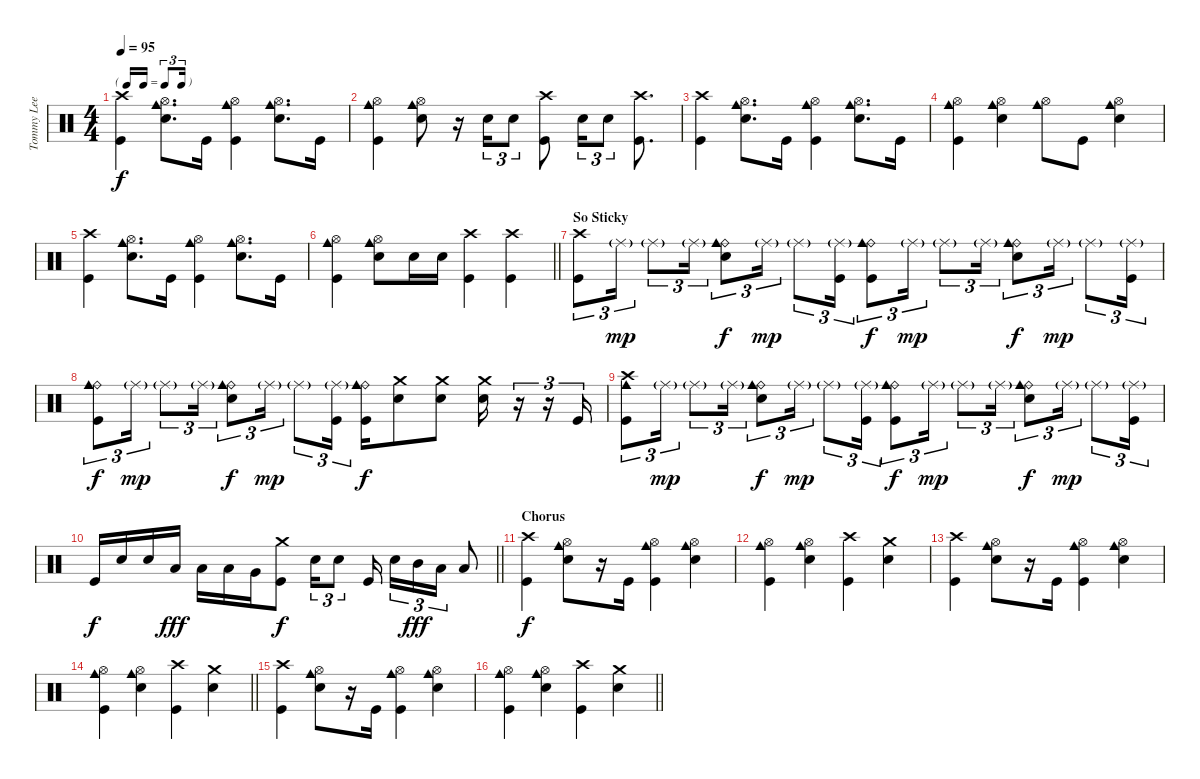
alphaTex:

\track ("Tommy Lee" "Tommy Lee") {instrument percussion}
\staff {score}
\articulation defaults
\ts (4 4)
\tf triplet16th
\tempo 95
\clef neutral
\ks c
("Crash high (hit)" "Kick (hit)").4{dy f} ("Hi-Hat (open)" "Cowbell medium (hit)" "Snare (hit) 2").8{d} "Kick (hit)".16 ("Hi-Hat (open)" "Cowbell medium (hit)" "Kick (hit)").4 ("Hi-Hat (open)" "Cowbell medium (hit)" "Snare (hit) 2").8{d} "Kick (hit)".16 |
("Hi-Hat (open)" "Cowbell medium (hit)" "Kick (hit)").4 ("Hi-Hat (open)" "Cowbell medium (hit)" "Snare (hit) 2").8 r.16 "Snare (hit) 2".16{tu (3 2)} "Snare (hit) 2".8{tu (3 2)} ("Crash high (hit)" "Kick (hit)").8 "Snare (hit) 2".16{tu (3 2)} "Snare (hit) 2".8{tu (3 2)} ("Crash high (hit)" "Kick (hit)").8{d} |
("Crash high (hit)" "Kick (hit)").4 ("Hi-Hat (open)" "Cowbell medium (hit)" "Snare (hit) 2").8{d} "Kick (hit)".16 ("Hi-Hat (open)" "Cowbell medium (hit)" "Kick (hit)").4 ("Hi-Hat (open)" "Cowbell medium (hit)" "Snare (hit) 2").8{d} "Kick (hit)".16 |
("Hi-Hat (open)" "Cowbell medium (hit)" "Kick (hit)").4 ("Hi-Hat (open)" "Cowbell medium (hit)" "Snare (hit) 2").4 ("Hi-Hat (open)" "Cowbell medium (hit)").8 "Kick (hit)".8 ("Hi-Hat (open)" "Cowbell medium (hit)" "Snare (hit) 2").4 |
("Crash high (hit)" "Kick (hit)").4 ("Hi-Hat (open)" "Cowbell medium (hit)" "Snare (hit) 2").8{d} "Kick (hit)".16 ("Hi-Hat (open)" "Cowbell medium (hit)" "Kick (hit)").4 ("Hi-Hat (open)" "Cowbell medium (hit)" "Snare (hit) 2").8{d} "Kick (hit)".16 |
\barLineRight lightlight
("Hi-Hat (open)" "Cowbell medium (hit)" "Kick (hit)").4 ("Hi-Hat (open)" "Cowbell medium (hit)" "Snare (hit) 2").8 "Snare (hit) 2".16 "Snare (hit) 2".16 ("Crash high (hit)" "Kick (hit)").4 ("Crash high (hit)" "Kick (hit)").4 |
\section ("" "So Sticky")
("Crash high (hit)" "Kick (hit)").8{tu (3 2)} "Ride (middle)"{g}.16{tu (3 2) dy mp} "Ride (middle)"{g}.8{tu (3 2)} "Ride (middle)"{g}.16{tu (3 2)} ("Ride (bell)" "Cowbell medium (hit)" "Snare (hit) 2").8{tu (3 2) dy f} "Ride (middle)"{g}.16{tu (3 2) dy mp} "Ride (middle)"{g}.8{tu (3 2)} ("Ride (middle)"{g} "Kick (hit)").16{tu (3 2)} ("Ride (bell)" "Cowbell medium (hit)" "Kick (hit)").8{tu (3 2) dy f} "Ride (middle)"{g}.16{tu (3 2) dy mp} "Ride (middle)"{g}.8{tu (3 2)} "Ride (middle)"{g}.16{tu (3 2)} ("Ride (bell)" "Cowbell medium (hit)" "Snare (hit) 2").8{tu (3 2) dy f} "Ride (middle)"{g}.16{tu (3 2) dy mp} "Ride (middle)"{g}.8{tu (3 2)} ("Ride (middle)"{g} "Kick (hit)").16{tu (3 2)} |
("Ride (bell)" "Cowbell medium (hit)" "Kick (hit)").8{tu (3 2) dy f} "Ride (middle)"{g}.16{tu (3 2) dy mp} "Ride (middle)"{g}.8{tu (3 2)} "Ride (middle)"{g}.16{tu (3 2)} ("Ride (bell)" "Cowbell medium (hit)" "Snare (hit) 2").8{tu (3 2) dy f} "Ride (middle)"{g}.16{tu (3 2) dy mp} "Ride (middle)"{g}.8{tu (3 2)} ("Ride (middle)"{g} "Kick (hit)").16{tu (3 2)} ("Ride (bell)" "Cowbell medium (hit)" "Kick (hit)").16{dy f} ("Crash medium (hit)" "Snare (hit) 2").8 ("Crash medium (hit)" "Snare (hit) 2").8 ("Crash medium (hit)" "Snare (hit) 2").16 r.16{tu (3 2)} r.16{tu (3 2)} "Kick (hit)".16{tu (3 2)} |
("Crash high (hit)" "Cowbell medium (hit)" "Kick (hit)").8{tu (3 2)} "Ride (middle)"{g}.16{tu (3 2) dy mp} "Ride (middle)"{g}.8{tu (3 2)} "Ride (middle)"{g}.16{tu (3 2)} ("Ride (bell)" "Cowbell medium (hit)" "Snare (hit) 2").8{tu (3 2) dy f} "Ride (middle)"{g}.16{tu (3 2) dy mp} "Ride (middle)"{g}.8{tu (3 2)} ("Ride (middle)"{g} "Kick (hit)").16{tu (3 2)} ("Ride (bell)" "Cowbell medium (hit)" "Kick (hit)").8{tu (3 2) dy f} "Ride (middle)"{g}.16{tu (3 2) dy mp} "Ride (middle)"{g}.8{tu (3 2)} "Ride (middle)"{g}.16{tu (3 2)} ("Ride (bell)" "Cowbell medium (hit)" "Snare (hit) 2").8{tu (3 2) dy f} "Ride (middle)"{g}.16{tu (3 2) dy mp} "Ride (middle)"{g}.8{tu (3 2)} ("Ride (middle)"{g} "Kick (hit)").16{tu (3 2)} |
\barLineRight lightlight "Kick (hit)".16{dy f} "Snare (hit) 2".16 "Snare (hit) 2".16 "Low Tom (hit)".16{dy fff} "Low Tom (hit)".16 "Low Floor Tom (hit)".16 "Very Low Tom (hit)".16
("Crash medium (hit)" "Kick (hit)").8{dy f} "Snare (hit) 2".16{tu (3 2)} "Snare (hit) 2".8{tu (3 2)} "Kick (hit)".16 "Snare (hit) 2".16{tu (3 2)} "Mid Tom (hit)".16{tu (3 2) dy fff} "Low Tom (hit)".16{tu (3 2)} "Low Floor Tom (hit)".8 |
\section ("" "Chorus")
("Crash high (hit)" "Kick (hit)").4{dy f} ("Hi-Hat (open)" "Cowbell medium (hit)" "Snare (hit) 2").8 r.16 "Kick (hit)".16 ("Hi-Hat (open)" "Cowbell medium (hit)" "Kick (hit)").4 ("Hi-Hat (open)" "Cowbell medium (hit)" "Snare (hit) 2").4 |
("Hi-Hat (open)" "Cowbell medium (hit)" "Kick (hit)").4 ("Hi-Hat (open)" "Cowbell medium (hit)" "Snare (hit) 2").4 ("Crash high (hit)" "Kick (hit)").4 ("Crash medium (hit)" "Snare (hit) 2").4 |
("Crash high (hit)" "Kick (hit)").4 ("Hi-Hat (open)" "Cowbell medium (hit)" "Snare (hit) 2").8 r.16 "Kick (hit)".16 ("Hi-Hat (open)" "Cowbell medium (hit)" "Kick (hit)").4 ("Hi-Hat (open)" "Cowbell medium (hit)" "Snare (hit) 2").4 |
\barLineRight lightlight
("Hi-Hat (open)" "Cowbell medium (hit)" "Kick (hit)").4 ("Hi-Hat (open)" "Cowbell medium (hit)" "Snare (hit) 2").4 ("Crash high (hit)" "Kick (hit)").4 ("Crash medium (hit)" "Snare (hit) 2").4 |
("Crash high (hit)" "Kick (hit)").4 ("Hi-Hat (open)" "Cowbell medium (hit)" "Snare (hit) 2").8 r.16 "Kick (hit)".16 ("Hi-Hat (open)" "Cowbell medium (hit)" "Kick (hit)").4 ("Hi-Hat (open)" "Cowbell medium (hit)" "Snare (hit) 2").4 |
\barLineRight lightlight
("Hi-Hat (open)" "Cowbell medium (hit)" "Kick (hit)").4 ("Hi-Hat (open)" "Cowbell medium (hit)" "Snare (hit) 2").4 ("Crash high (hit)" "Kick (hit)").4 ("Crash medium (hit)" "Snare (hit) 2").4
